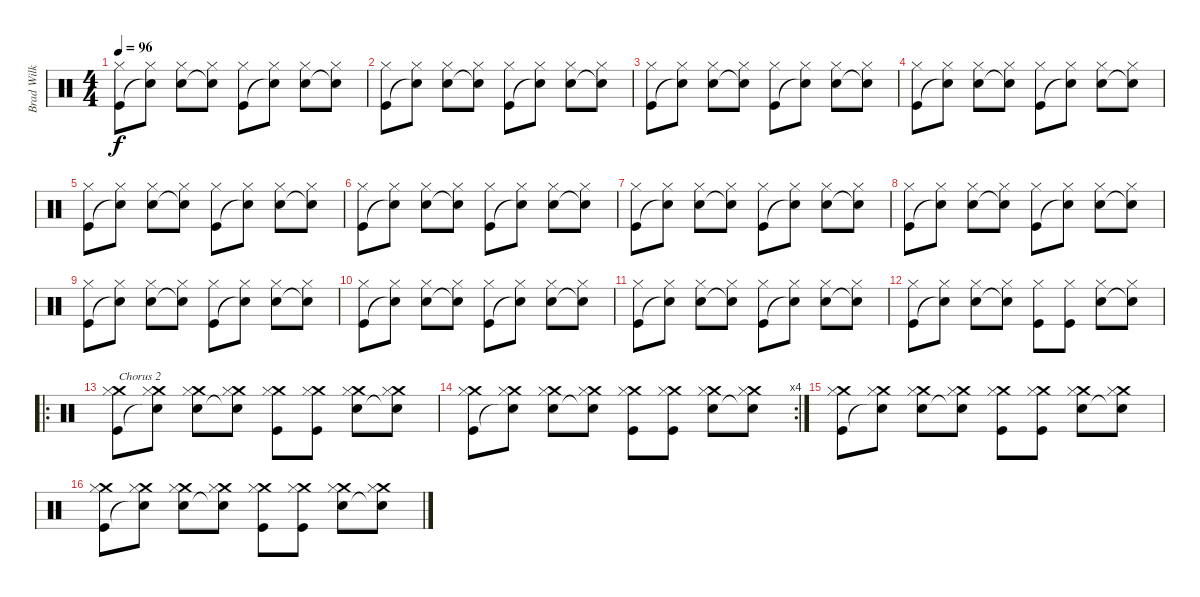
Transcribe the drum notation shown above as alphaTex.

\track ("Brad Wilk" "Brad Wilk") {instrument percussion}
\staff {score}
\articulation defaults
\ts (4 4)
\tempo 96
\clef neutral
\ks c
("Hi-Hat (closed)" "Kick (hit)").8{dy f} ("Hi-Hat (closed)" "Snare (hit)"{t}).8 ("Hi-Hat (closed)" "Snare (hit) 2").8 ("Hi-Hat (closed)" "Snare (hit)"{t}).8 ("Hi-Hat (closed)" "Kick (hit)").8 ("Hi-Hat (closed)" "Snare (hit)"{t}).8 ("Hi-Hat (closed)" "Snare (hit) 2").8 ("Hi-Hat (closed)" "Snare (hit)"{t}).8 |
("Hi-Hat (closed)" "Kick (hit)").8 ("Hi-Hat (closed)" "Snare (hit)"{t}).8 ("Hi-Hat (closed)" "Snare (hit) 2").8 ("Hi-Hat (closed)" "Snare (hit)"{t}).8 ("Hi-Hat (closed)" "Kick (hit)").8 ("Hi-Hat (closed)" "Snare (hit)"{t}).8 ("Hi-Hat (closed)" "Snare (hit) 2").8 ("Hi-Hat (closed)" "Snare (hit)"{t}).8 |
("Hi-Hat (closed)" "Kick (hit)").8 ("Hi-Hat (closed)" "Snare (hit)"{t}).8 ("Hi-Hat (closed)" "Snare (hit) 2").8 ("Hi-Hat (closed)" "Snare (hit)"{t}).8 ("Hi-Hat (closed)" "Kick (hit)").8 ("Hi-Hat (closed)" "Snare (hit)"{t}).8 ("Hi-Hat (closed)" "Snare (hit) 2").8 ("Hi-Hat (closed)" "Snare (hit)"{t}).8 |
("Hi-Hat (closed)" "Kick (hit)").8 ("Hi-Hat (closed)" "Snare (hit)"{t}).8 ("Hi-Hat (closed)" "Snare (hit) 2").8 ("Hi-Hat (closed)" "Snare (hit)"{t}).8 ("Hi-Hat (closed)" "Kick (hit)").8 ("Hi-Hat (closed)" "Snare (hit)"{t}).8 ("Hi-Hat (closed)" "Snare (hit) 2").8 ("Hi-Hat (closed)" "Snare (hit)"{t}).8 |
("Hi-Hat (closed)" "Kick (hit)").8 ("Hi-Hat (closed)" "Snare (hit)"{t}).8 ("Hi-Hat (closed)" "Snare (hit) 2").8 ("Hi-Hat (closed)" "Snare (hit)"{t}).8 ("Hi-Hat (closed)" "Kick (hit)").8 ("Hi-Hat (closed)" "Snare (hit)"{t}).8 ("Hi-Hat (closed)" "Snare (hit) 2").8 ("Hi-Hat (closed)" "Snare (hit)"{t}).8 |
("Hi-Hat (closed)" "Kick (hit)").8 ("Hi-Hat (closed)" "Snare (hit)"{t}).8 ("Hi-Hat (closed)" "Snare (hit) 2").8 ("Hi-Hat (closed)" "Snare (hit)"{t}).8 ("Hi-Hat (closed)" "Kick (hit)").8 ("Hi-Hat (closed)" "Snare (hit)"{t}).8 ("Hi-Hat (closed)" "Snare (hit) 2").8 ("Hi-Hat (closed)" "Snare (hit)"{t}).8 |
("Hi-Hat (closed)" "Kick (hit)").8 ("Hi-Hat (closed)" "Snare (hit)"{t}).8 ("Hi-Hat (closed)" "Snare (hit) 2").8 ("Hi-Hat (closed)" "Snare (hit)"{t}).8 ("Hi-Hat (closed)" "Kick (hit)").8 ("Hi-Hat (closed)" "Snare (hit)"{t}).8 ("Hi-Hat (closed)" "Snare (hit) 2").8 ("Hi-Hat (closed)" "Snare (hit)"{t}).8 |
("Hi-Hat (closed)" "Kick (hit)").8 ("Hi-Hat (closed)" "Snare (hit)"{t}).8 ("Hi-Hat (closed)" "Snare (hit) 2").8 ("Hi-Hat (closed)" "Snare (hit)"{t}).8 ("Hi-Hat (closed)" "Kick (hit)").8 ("Hi-Hat (closed)" "Snare (hit)"{t}).8 ("Hi-Hat (closed)" "Snare (hit) 2").8 ("Hi-Hat (closed)" "Snare (hit)"{t}).8 |
("Hi-Hat (closed)" "Kick (hit)").8 ("Hi-Hat (closed)" "Snare (hit)"{t}).8 ("Hi-Hat (closed)" "Snare (hit) 2").8 ("Hi-Hat (closed)" "Snare (hit)"{t}).8 ("Hi-Hat (closed)" "Kick (hit)").8 ("Hi-Hat (closed)" "Snare (hit)"{t}).8 ("Hi-Hat (closed)" "Snare (hit) 2").8 ("Hi-Hat (closed)" "Snare (hit)"{t}).8 |
("Hi-Hat (closed)" "Kick (hit)").8 ("Hi-Hat (closed)" "Snare (hit)"{t}).8 ("Hi-Hat (closed)" "Snare (hit) 2").8 ("Hi-Hat (closed)" "Snare (hit)"{t}).8 ("Hi-Hat (closed)" "Kick (hit)").8 ("Hi-Hat (closed)" "Snare (hit)"{t}).8 ("Hi-Hat (closed)" "Snare (hit) 2").8 ("Hi-Hat (closed)" "Snare (hit)"{t}).8 |
("Hi-Hat (closed)" "Kick (hit)").8 ("Hi-Hat (closed)" "Snare (hit)"{t}).8 ("Hi-Hat (closed)" "Snare (hit) 2").8 ("Hi-Hat (closed)" "Snare (hit)"{t}).8 ("Hi-Hat (closed)" "Kick (hit)").8 ("Hi-Hat (closed)" "Snare (hit)"{t}).8 ("Hi-Hat (closed)" "Snare (hit) 2").8 ("Hi-Hat (closed)" "Snare (hit)"{t}).8 |
("Hi-Hat (closed)" "Kick (hit)").8 ("Hi-Hat (closed)" "Snare (hit)"{t}).8 ("Hi-Hat (closed)" "Snare (hit) 2").8 ("Hi-Hat (closed)" "Snare (hit)"{t}).8 ("Hi-Hat (closed)" "Kick (hit)").8 ("Hi-Hat (closed)" "Kick (hit)").8 ("Hi-Hat (closed)" "Snare (hit) 2").8 ("Hi-Hat (closed)" "Snare (hit)"{t}).8 |
\ro
("Crash medium (hit)" "Hi-Hat (closed)" "Kick (hit)").8{txt "Chorus 2"} ("Crash medium (hit)" "Hi-Hat (closed)" "Snare (hit)"{t}).8 ("Crash medium (hit)" "Hi-Hat (closed)" "Snare (hit) 2").8 ("Crash medium (hit)" "Hi-Hat (closed)" "Snare (hit)"{t}).8 ("Crash medium (hit)" "Hi-Hat (closed)" "Kick (hit)").8 ("Crash medium (hit)" "Hi-Hat (closed)" "Kick (hit)").8 ("Crash medium (hit)" "Hi-Hat (closed)" "Snare (hit) 2").8 ("Crash medium (hit)" "Hi-Hat (closed)" "Snare (hit)"{t}).8 |
\rc 4
("Crash medium (hit)" "Hi-Hat (closed)" "Kick (hit)").8 ("Crash medium (hit)" "Hi-Hat (closed)" "Snare (hit)"{t}).8 ("Crash medium (hit)" "Hi-Hat (closed)" "Snare (hit) 2").8 ("Crash medium (hit)" "Hi-Hat (closed)" "Snare (hit)"{t}).8 ("Crash medium (hit)" "Hi-Hat (closed)" "Kick (hit)").8 ("Crash medium (hit)" "Hi-Hat (closed)" "Kick (hit)").8 ("Crash medium (hit)" "Hi-Hat (closed)" "Snare (hit) 2").8 ("Crash medium (hit)" "Hi-Hat (closed)" "Snare (hit)"{t}).8 |
("Crash medium (hit)" "Hi-Hat (closed)" "Kick (hit)").8 ("Crash medium (hit)" "Hi-Hat (closed)" "Snare (hit)"{t}).8 ("Crash medium (hit)" "Hi-Hat (closed)" "Snare (hit) 2").8 ("Crash medium (hit)" "Hi-Hat (closed)" "Snare (hit)"{t}).8 ("Crash medium (hit)" "Hi-Hat (closed)" "Kick (hit)").8 ("Crash medium (hit)" "Hi-Hat (closed)" "Kick (hit)").8 ("Crash medium (hit)" "Hi-Hat (closed)" "Snare (hit) 2").8 ("Crash medium (hit)" "Hi-Hat (closed)" "Snare (hit)"{t}).8 |
("Crash medium (hit)" "Hi-Hat (closed)" "Kick (hit)").8 ("Crash medium (hit)" "Hi-Hat (closed)" "Snare (hit)"{t}).8 ("Crash medium (hit)" "Hi-Hat (closed)" "Snare (hit) 2").8 ("Crash medium (hit)" "Hi-Hat (closed)" "Snare (hit)"{t}).8 ("Crash medium (hit)" "Hi-Hat (closed)" "Kick (hit)").8 ("Crash medium (hit)" "Hi-Hat (closed)" "Kick (hit)").8 ("Crash medium (hit)" "Hi-Hat (closed)" "Snare (hit) 2").8 ("Crash medium (hit)" "Hi-Hat (closed)" "Snare (hit)"{t}).8
